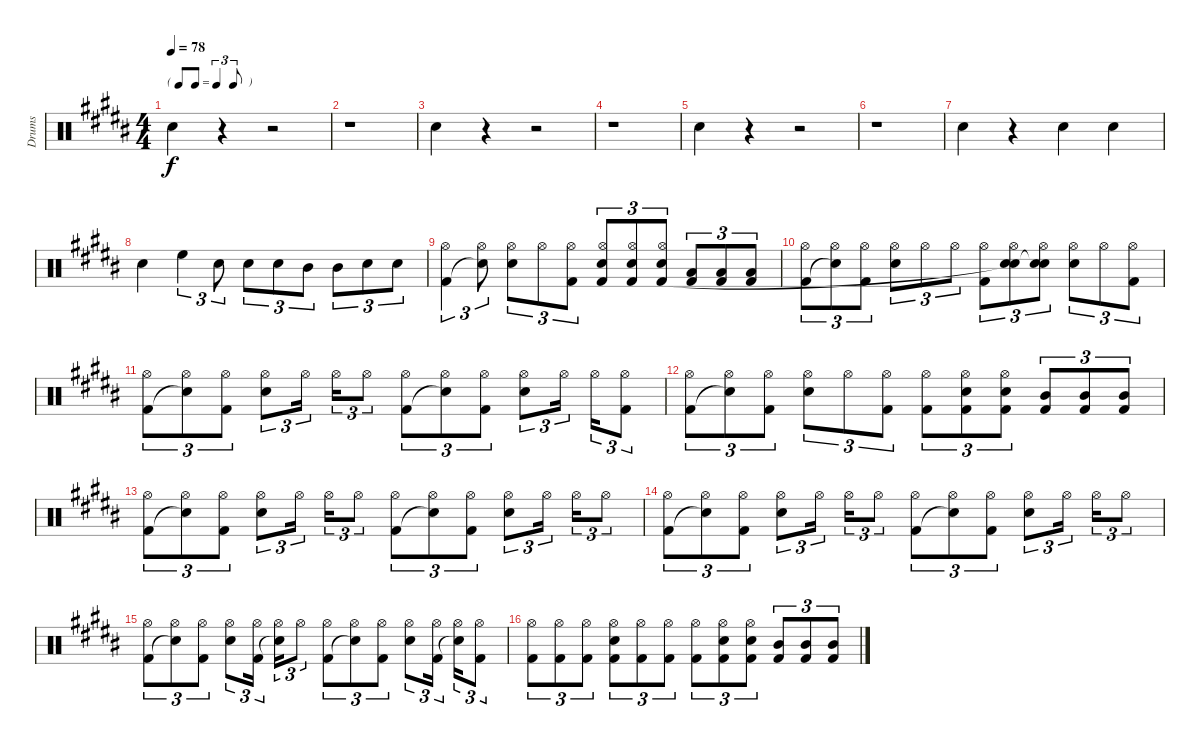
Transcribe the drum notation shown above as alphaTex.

\track ("Drums" "Drums") {instrument percussion}
\staff {score}
\articulation defaults
\ts (4 4)
\tf triplet8th
\tempo 78
\clef neutral
\ks b "Snare (hit) 2".4{dy f}
r.4 r.2 |
r.1 |
"Snare (hit) 2".4 r.4 r.2 |
r.1 |
"Snare (hit) 2".4 r.4 r.2 |
r.1 |
"Snare (hit) 2".4 r.4 "Snare (hit) 2".4 "Snare (hit) 2".4 |
"Snare (hit) 2".4 "High Floor Tom (hit)".4{tu (3 2)} "Snare (hit) 2".8{tu (3 2)} "Snare (hit) 2".8{tu (3 2)} "Snare (hit) 2".8{tu (3 2)} "Mid Tom (hit)".8{tu (3 2)} "Mid Tom (hit)".8{tu (3 2)} "Snare (hit) 2".8{tu (3 2)} "Snare (hit) 2".8{tu (3 2)} |
("Hi-Hat (open)" "Kick (hit) 2").4{tu (3 2)} ("Hi-Hat (open)" "Snare (hit)"{t}).8{tu (3 2)} ("Hi-Hat (open)" "Snare (hit) 2").8{tu (3 2)} "Hi-Hat (open)".8{tu (3 2)} ("Hi-Hat (open)" "Kick (hit) 2").8{tu (3 2)} ("Hi-Hat (open)" "Snare (hit) 2" "Kick (hit) 2").8{tu (3 2)} ("Hi-Hat (open)" "Snare (hit) 2" "Kick (hit) 2").8{tu (3 2)} ("Hi-Hat (open)" "Snare (hit) 2" "Kick (hit) 2").8{tu (3 2)} ("Low Tom (hit)" "Kick (hit) 2").8{tu (3 2)} ("Low Tom (hit)" "Kick (hit) 2").8{tu (3 2)} ("Low Tom (hit)" "Kick (hit) 2").8{tu (3 2)} |
("Hi-Hat (open)" "Kick (hit) 2").8{tu (3 2)} ("Hi-Hat (open)" "Snare (hit)"{t}).8{tu (3 2)} ("Hi-Hat (open)" "Kick (hit) 2").8{tu (3 2)} ("Hi-Hat (open)" "Snare (hit) 2").8{tu (3 2)} "Hi-Hat (open)".8{tu (3 2)} "Hi-Hat (open)".8{tu (3 2)} ("Hi-Hat (open)" "Kick (hit) 2").8{tu (3 2)} ("Hi-Hat (open)" "Snare (hit) 2" "Snare (hit)"{t}).8{tu (3 2)} ("Hi-Hat (open)" "Snare (hit) 2" "Snare (hit)"{t}).8{tu (3 2)} ("Hi-Hat (open)" "Snare (hit) 2").8{tu (3 2)} "Hi-Hat (open)".8{tu (3 2)} ("Hi-Hat (open)" "Kick (hit) 2").8{tu (3 2)} |
("Hi-Hat (open)" "Kick (hit) 2").8{tu (3 2)} ("Hi-Hat (open)" "Snare (hit)"{t}).8{tu (3 2)} ("Hi-Hat (open)" "Kick (hit) 2").8{tu (3 2)} ("Hi-Hat (open)" "Snare (hit) 2").8{tu (3 2)} "Hi-Hat (open)".16{tu (3 2)} "Hi-Hat (open)".16{tu (3 2)} "Hi-Hat (open)".8{tu (3 2)} ("Hi-Hat (open)" "Kick (hit) 2").8{tu (3 2)} ("Hi-Hat (open)" "Snare (hit)"{t}).8{tu (3 2)} ("Hi-Hat (open)" "Kick (hit) 2").8{tu (3 2)} ("Hi-Hat (open)" "Snare (hit) 2").8{tu (3 2)} "Hi-Hat (open)".16{tu (3 2)} "Hi-Hat (open)".16{tu (3 2)} ("Hi-Hat (open)" "Kick (hit) 2").8{tu (3 2)} |
("Hi-Hat (open)" "Kick (hit) 2").8{tu (3 2)} ("Hi-Hat (open)" "Snare (hit)"{t}).8{tu (3 2)} ("Hi-Hat (open)" "Kick (hit) 2").8{tu (3 2)} ("Hi-Hat (open)" "Snare (hit) 2").8{tu (3 2)} "Hi-Hat (open)".8{tu (3 2)} ("Hi-Hat (open)" "Kick (hit) 2").8{tu (3 2)} ("Hi-Hat (open)" "Kick (hit) 2").8{tu (3 2)} ("Hi-Hat (open)" "Snare (hit) 2" "Kick (hit) 2").8{tu (3 2)} ("Hi-Hat (open)" "Snare (hit) 2" "Kick (hit) 2").8{tu (3 2)} ("Mid Tom (hit)" "Kick (hit) 2").8{tu (3 2)} ("Mid Tom (hit)" "Kick (hit) 2").8{tu (3 2)} ("Mid Tom (hit)" "Kick (hit) 2").8{tu (3 2)} |
("Hi-Hat (open)" "Kick (hit) 2").8{tu (3 2)} ("Hi-Hat (open)" "Snare (hit)"{t}).8{tu (3 2)} ("Hi-Hat (open)" "Kick (hit) 2").8{tu (3 2)} ("Hi-Hat (open)" "Snare (hit) 2").8{tu (3 2)} "Hi-Hat (open)".16{tu (3 2)} "Hi-Hat (open)".16{tu (3 2)} "Hi-Hat (open)".8{tu (3 2)} ("Hi-Hat (open)" "Kick (hit) 2").8{tu (3 2)} ("Hi-Hat (open)" "Snare (hit)"{t}).8{tu (3 2)} ("Hi-Hat (open)" "Kick (hit) 2").8{tu (3 2)} ("Hi-Hat (open)" "Snare (hit) 2").8{tu (3 2)} "Hi-Hat (open)".16{tu (3 2)} "Hi-Hat (open)".16{tu (3 2)} "Hi-Hat (open)".8{tu (3 2)} |
("Hi-Hat (open)" "Kick (hit) 2").8{tu (3 2)} ("Hi-Hat (open)" "Snare (hit)"{t}).8{tu (3 2)} ("Hi-Hat (open)" "Kick (hit) 2").8{tu (3 2)} ("Hi-Hat (open)" "Snare (hit) 2").8{tu (3 2)} "Hi-Hat (open)".16{tu (3 2)} "Hi-Hat (open)".16{tu (3 2)} "Hi-Hat (open)".8{tu (3 2)} ("Hi-Hat (open)" "Kick (hit) 2").8{tu (3 2)} ("Hi-Hat (open)" "Snare (hit)"{t}).8{tu (3 2)} ("Hi-Hat (open)" "Kick (hit) 2").8{tu (3 2)} ("Hi-Hat (open)" "Snare (hit) 2").8{tu (3 2)} "Hi-Hat (open)".16{tu (3 2)} "Hi-Hat (open)".16{tu (3 2)} "Hi-Hat (open)".8{tu (3 2)} |
("Hi-Hat (open)" "Kick (hit) 2").8{tu (3 2)} ("Hi-Hat (open)" "Snare (hit)"{t}).8{tu (3 2)} ("Hi-Hat (open)" "Kick (hit) 2").8{tu (3 2)} ("Hi-Hat (open)" "Snare (hit) 2").8{tu (3 2)} ("Hi-Hat (open)" "Kick (hit) 2").16{tu (3 2)} ("Hi-Hat (open)" "Snare (hit)"{t}).16{tu (3 2)} "Hi-Hat (open)".8{tu (3 2)} ("Hi-Hat (open)" "Kick (hit) 2").8{tu (3 2)} ("Hi-Hat (open)" "Snare (hit)"{t}).8{tu (3 2)} ("Hi-Hat (open)" "Kick (hit) 2").8{tu (3 2)} ("Hi-Hat (open)" "Snare (hit) 2").8{tu (3 2)} ("Hi-Hat (open)" "Kick (hit) 2").16{tu (3 2)} ("Hi-Hat (open)" "Snare (hit)"{t}).16{tu (3 2)} ("Hi-Hat (open)" "Kick (hit) 2").8{tu (3 2)} |
("Hi-Hat (open)" "Kick (hit) 2").8{tu (3 2)} ("Hi-Hat (open)" "Kick (hit) 2").8{tu (3 2)} ("Hi-Hat (open)" "Kick (hit) 2").8{tu (3 2)} ("Hi-Hat (open)" "Snare (hit) 2" "Kick (hit) 2").8{tu (3 2)} ("Hi-Hat (open)" "Kick (hit) 2").8{tu (3 2)} ("Hi-Hat (open)" "Kick (hit) 2").8{tu (3 2)} ("Hi-Hat (open)" "Kick (hit) 2").8{tu (3 2)} ("Hi-Hat (open)" "Snare (hit) 2" "Kick (hit) 2").8{tu (3 2)} ("Hi-Hat (open)" "Snare (hit) 2" "Kick (hit) 2").8{tu (3 2)} ("Mid Tom (hit)" "Kick (hit) 2").8{tu (3 2)} ("Mid Tom (hit)" "Kick (hit) 2").8{tu (3 2)} ("Mid Tom (hit)" "Kick (hit) 2").8{tu (3 2)}
